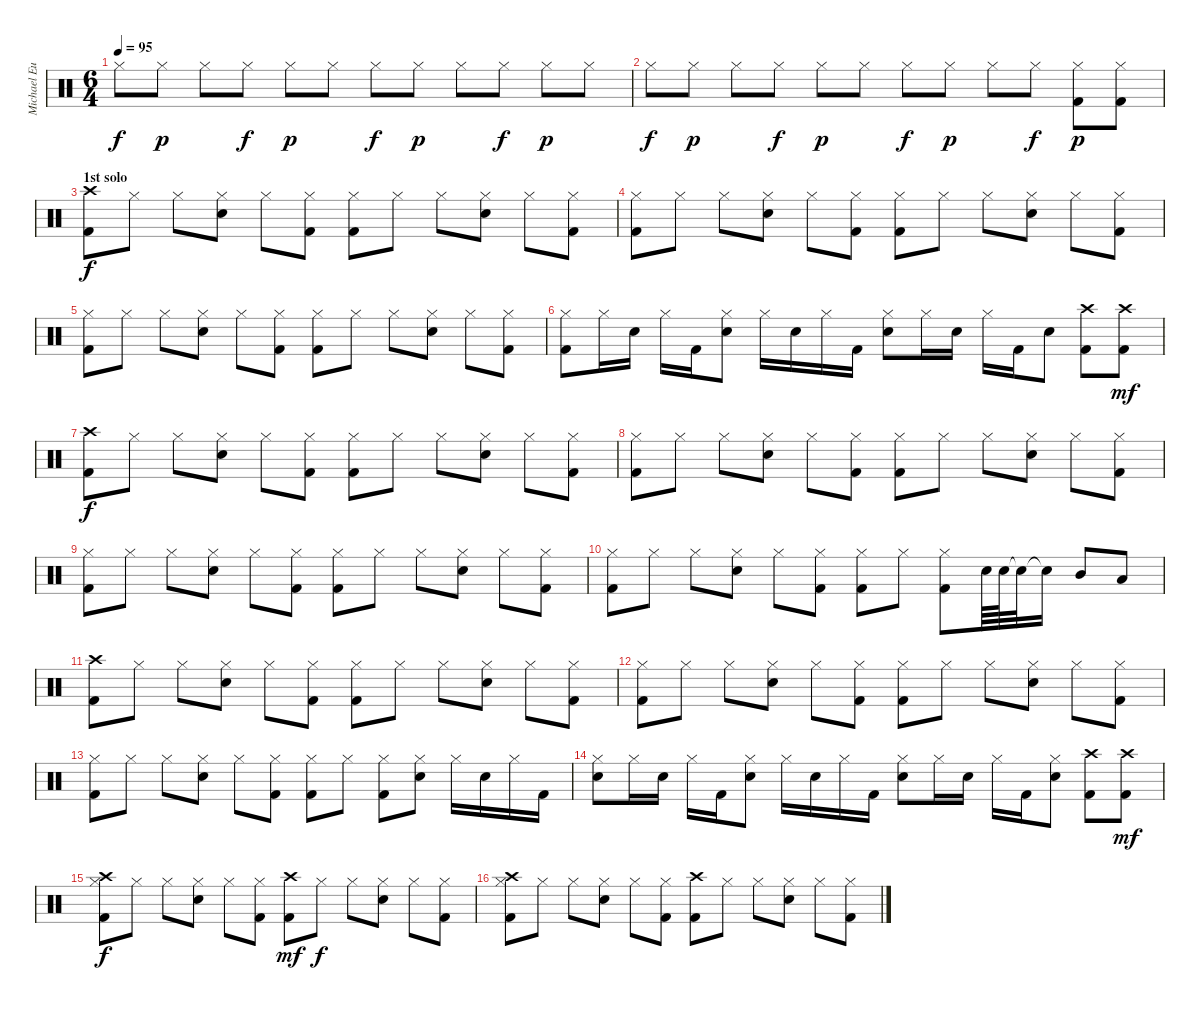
\track ("Michael Eurich" "Michael Eu") {instrument percussion}
\staff {score}
\articulation defaults
\ts (6 4)
\tempo 95
\clef neutral
\ks c "Hi-Hat (closed)".8{dy f} "Hi-Hat (closed)".8{dy p} "Hi-Hat (closed)".8 "Hi-Hat (closed)".8{dy f} "Hi-Hat (closed)".8{dy p} "Hi-Hat (closed)".8 "Hi-Hat (closed)".8{dy f} "Hi-Hat (closed)".8{dy p} "Hi-Hat (closed)".8 "Hi-Hat (closed)".8{dy f} "Hi-Hat (closed)".8{dy p} "Hi-Hat (closed)".8
|
"Hi-Hat (closed)".8{dy f} "Hi-Hat (closed)".8{dy p} "Hi-Hat (closed)".8 "Hi-Hat (closed)".8{dy f} "Hi-Hat (closed)".8{dy p} "Hi-Hat (closed)".8 "Hi-Hat (closed)".8{dy f} "Hi-Hat (closed)".8{dy p} "Hi-Hat (closed)".8 "Hi-Hat (closed)".8{dy f} ("Kick (hit) 2" "Hi-Hat (closed)").8{dy p} ("Kick (hit) 2" "Hi-Hat (closed)").8 |
\section ("" "1st solo")
("Kick (hit) 2" "Crash high (hit)").8{dy f} "Hi-Hat (closed)".8 "Hi-Hat (closed)".8 ("Hi-Hat (closed)" "Snare (hit) 2").8 "Hi-Hat (closed)".8 ("Kick (hit) 2" "Hi-Hat (closed)").8 ("Kick (hit) 2" "Hi-Hat (closed)").8 "Hi-Hat (closed)".8 "Hi-Hat (closed)".8 ("Hi-Hat (closed)" "Snare (hit) 2").8 "Hi-Hat (closed)".8 ("Kick (hit) 2" "Hi-Hat (closed)").8 |
("Kick (hit) 2" "Hi-Hat (closed)").8 "Hi-Hat (closed)".8 "Hi-Hat (closed)".8 ("Hi-Hat (closed)" "Snare (hit) 2").8 "Hi-Hat (closed)".8 ("Kick (hit) 2" "Hi-Hat (closed)").8 ("Kick (hit) 2" "Hi-Hat (closed)").8 "Hi-Hat (closed)".8 "Hi-Hat (closed)".8 ("Hi-Hat (closed)" "Snare (hit) 2").8 "Hi-Hat (closed)".8 ("Kick (hit) 2" "Hi-Hat (closed)").8 |
("Kick (hit) 2" "Hi-Hat (closed)").8 "Hi-Hat (closed)".8 "Hi-Hat (closed)".8 ("Hi-Hat (closed)" "Snare (hit) 2").8 "Hi-Hat (closed)".8 ("Kick (hit) 2" "Hi-Hat (closed)").8 ("Kick (hit) 2" "Hi-Hat (closed)").8 "Hi-Hat (closed)".8 "Hi-Hat (closed)".8 ("Hi-Hat (closed)" "Snare (hit) 2").8 "Hi-Hat (closed)".8 ("Kick (hit) 2" "Hi-Hat (closed)").8 |
("Kick (hit) 2" "Hi-Hat (closed)").8 "Hi-Hat (closed)".16 "Snare (hit) 2".16 "Hi-Hat (closed)".16 "Kick (hit) 2".16 ("Hi-Hat (closed)" "Snare (hit) 2").8 "Hi-Hat (closed)".16 "Snare (hit) 2".16 "Hi-Hat (closed)".16 "Kick (hit) 2".16 ("Hi-Hat (closed)" "Snare (hit) 2").8 "Hi-Hat (closed)".16 "Snare (hit) 2".16 "Hi-Hat (closed)".16 "Kick (hit) 2".16 "Snare (hit) 2".8 ("Kick (hit) 2" "Crash high (hit)").8 ("Kick (hit) 2" "Crash high (hit)").8{dy mf} |
("Kick (hit) 2" "Crash high (hit)").8{dy f} "Hi-Hat (closed)".8 "Hi-Hat (closed)".8 ("Hi-Hat (closed)" "Snare (hit) 2").8 "Hi-Hat (closed)".8 ("Kick (hit) 2" "Hi-Hat (closed)").8 ("Kick (hit) 2" "Hi-Hat (closed)").8 "Hi-Hat (closed)".8 "Hi-Hat (closed)".8 ("Hi-Hat (closed)" "Snare (hit) 2").8 "Hi-Hat (closed)".8 ("Kick (hit) 2" "Hi-Hat (closed)").8 |
("Kick (hit) 2" "Hi-Hat (closed)").8 "Hi-Hat (closed)".8 "Hi-Hat (closed)".8 ("Hi-Hat (closed)" "Snare (hit) 2").8 "Hi-Hat (closed)".8 ("Kick (hit) 2" "Hi-Hat (closed)").8 ("Kick (hit) 2" "Hi-Hat (closed)").8 "Hi-Hat (closed)".8 "Hi-Hat (closed)".8 ("Hi-Hat (closed)" "Snare (hit) 2").8 "Hi-Hat (closed)".8 ("Kick (hit) 2" "Hi-Hat (closed)").8 |
("Kick (hit) 2" "Hi-Hat (closed)").8 "Hi-Hat (closed)".8 "Hi-Hat (closed)".8 ("Hi-Hat (closed)" "Snare (hit) 2").8 "Hi-Hat (closed)".8 ("Kick (hit) 2" "Hi-Hat (closed)").8 ("Kick (hit) 2" "Hi-Hat (closed)").8 "Hi-Hat (closed)".8 "Hi-Hat (closed)".8 ("Hi-Hat (closed)" "Snare (hit) 2").8 "Hi-Hat (closed)".8 ("Kick (hit) 2" "Hi-Hat (closed)").8 |
("Kick (hit) 2" "Hi-Hat (closed)").8 "Hi-Hat (closed)".8 "Hi-Hat (closed)".8 ("Hi-Hat (closed)" "Snare (hit) 2").8 "Hi-Hat (closed)".8 ("Kick (hit) 2" "Hi-Hat (closed)").8 ("Kick (hit) 2" "Hi-Hat (closed)").8 "Hi-Hat (closed)".8 ("Kick (hit) 2" "Hi-Hat (closed)").8 "Snare (hit) 2".64 "Snare (hit) 2".64 "Snare (hit)"{t}.32 "Snare (hit)"{t}.16 "Mid Tom (hit)".8 "Low Tom (hit)".8 |
("Kick (hit) 2" "Crash high (hit)").8 "Hi-Hat (closed)".8 "Hi-Hat (closed)".8 ("Hi-Hat (closed)" "Snare (hit) 2").8 "Hi-Hat (closed)".8 ("Kick (hit) 2" "Hi-Hat (closed)").8 ("Kick (hit) 2" "Hi-Hat (closed)").8 "Hi-Hat (closed)".8 "Hi-Hat (closed)".8 ("Hi-Hat (closed)" "Snare (hit) 2").8 "Hi-Hat (closed)".8 ("Kick (hit) 2" "Hi-Hat (closed)").8 |
("Kick (hit) 2" "Hi-Hat (closed)").8 "Hi-Hat (closed)".8 "Hi-Hat (closed)".8 ("Hi-Hat (closed)" "Snare (hit) 2").8 "Hi-Hat (closed)".8 ("Kick (hit) 2" "Hi-Hat (closed)").8 ("Kick (hit) 2" "Hi-Hat (closed)").8 "Hi-Hat (closed)".8 "Hi-Hat (closed)".8 ("Hi-Hat (closed)" "Snare (hit) 2").8 "Hi-Hat (closed)".8 ("Kick (hit) 2" "Hi-Hat (closed)").8 |
("Kick (hit) 2" "Hi-Hat (closed)").8 "Hi-Hat (closed)".8 "Hi-Hat (closed)".8 ("Hi-Hat (closed)" "Snare (hit) 2").8 "Hi-Hat (closed)".8 ("Kick (hit) 2" "Hi-Hat (closed)").8 ("Kick (hit) 2" "Hi-Hat (closed)").8 "Hi-Hat (closed)".8 ("Kick (hit) 2" "Hi-Hat (closed)").8 ("Hi-Hat (closed)" "Snare (hit) 2").8 "Hi-Hat (closed)".16 "Snare (hit) 2".16 "Hi-Hat (closed)".16 "Kick (hit) 2".16 |
("Hi-Hat (closed)" "Snare (hit) 2").8 "Hi-Hat (closed)".16 "Snare (hit) 2".16 "Hi-Hat (closed)".16 "Kick (hit) 2".16 ("Hi-Hat (closed)" "Snare (hit) 2").8 "Hi-Hat (closed)".16 "Snare (hit) 2".16 "Hi-Hat (closed)".16 "Kick (hit) 2".16 ("Hi-Hat (closed)" "Snare (hit) 2").8 "Hi-Hat (closed)".16 "Snare (hit) 2".16 "Hi-Hat (closed)".16 "Kick (hit) 2".16 ("Hi-Hat (closed)" "Snare (hit) 2").8 ("Kick (hit) 2" "Crash high (hit)").8 ("Kick (hit) 2" "Crash high (hit)").8{dy mf} |
("Kick (hit) 2" "Hi-Hat (closed)" "Crash high (hit)").8{dy f} "Hi-Hat (closed)".8 "Hi-Hat (closed)".8 ("Hi-Hat (closed)" "Snare (hit) 2").8 "Hi-Hat (closed)".8 ("Kick (hit) 2" "Hi-Hat (closed)").8 ("Kick (hit) 2" "Crash high (hit)").8{dy mf} "Hi-Hat (closed)".8{dy f} "Hi-Hat (closed)".8 ("Hi-Hat (closed)" "Snare (hit) 2").8 "Hi-Hat (closed)".8 ("Kick (hit) 2" "Hi-Hat (closed)").8 |
("Kick (hit) 2" "Hi-Hat (closed)" "Crash high (hit)").8 "Hi-Hat (closed)".8 "Hi-Hat (closed)".8 ("Hi-Hat (closed)" "Snare (hit) 2").8 "Hi-Hat (closed)".8 ("Kick (hit) 2" "Hi-Hat (closed)").8 ("Kick (hit) 2" "Crash high (hit)").8 "Hi-Hat (closed)".8 "Hi-Hat (closed)".8 ("Hi-Hat (closed)" "Snare (hit) 2").8 "Hi-Hat (closed)".8 ("Kick (hit) 2" "Hi-Hat (closed)").8
